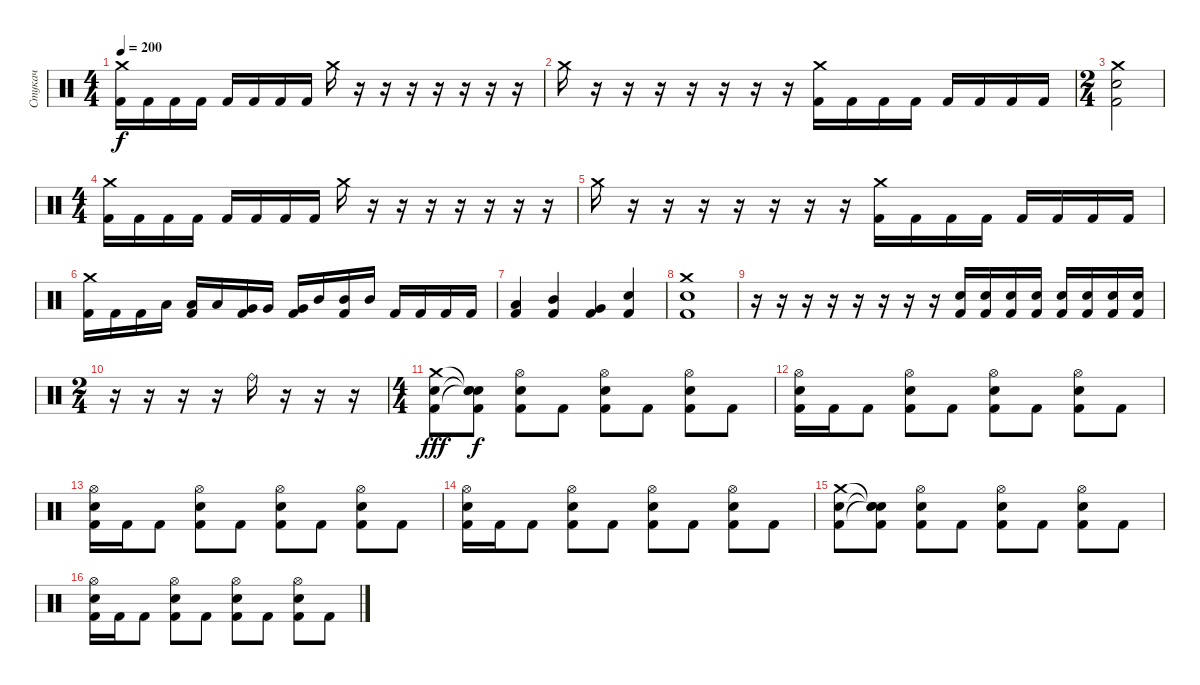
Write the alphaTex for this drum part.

\track ("Стукач" "Стукач") {instrument percussion}
\staff {score}
\articulation defaults
\ts (4 4)
\tempo 200
\clef neutral
\ks c
("Crash medium (hit)" "Kick (hit) 2").16{dy f} "Kick (hit) 2".16 "Kick (hit) 2".16 "Kick (hit) 2".16 "Kick (hit) 2".16 "Kick (hit) 2".16 "Kick (hit) 2".16 "Kick (hit) 2".16 "Crash medium (hit)".16 r.16 r.16 r.16 r.16 r.16 r.16 r.16 |
"Crash medium (hit)".16 r.16 r.16 r.16 r.16 r.16 r.16 r.16 ("Crash medium (hit)" "Kick (hit) 2").16 "Kick (hit) 2".16 "Kick (hit) 2".16 "Kick (hit) 2".16 "Kick (hit) 2".16 "Kick (hit) 2".16 "Kick (hit) 2".16 "Kick (hit) 2".16 |
\ts (2 4)
("Crash medium (hit)" "Electric Snare (hit)" "Kick (hit) 2").2 |
\ts (4 4)
("Crash medium (hit)" "Kick (hit) 2").16 "Kick (hit) 2".16 "Kick (hit) 2".16 "Kick (hit) 2".16 "Kick (hit) 2".16 "Kick (hit) 2".16 "Kick (hit) 2".16 "Kick (hit) 2".16 "Crash medium (hit)".16 r.16 r.16 r.16 r.16 r.16 r.16 r.16 |
"Crash medium (hit)".16 r.16 r.16 r.16 r.16 r.16 r.16 r.16 ("Crash medium (hit)" "Kick (hit) 2").16 "Kick (hit) 2".16 "Kick (hit) 2".16 "Kick (hit) 2".16 "Kick (hit) 2".16 "Kick (hit) 2".16 "Kick (hit) 2".16 "Kick (hit) 2".16 |
("Crash medium (hit)" "Kick (hit) 2").16 "Kick (hit) 2".16 "Kick (hit) 2".16 "Low Tom (hit)".16 ("Low Tom (hit)" "Kick (hit) 2").16 "Low Tom (hit)".16 ("Very Low Tom (hit)" "Kick (hit) 2").16 "Very Low Tom (hit)".16 ("Very Low Tom (hit)" "Kick (hit) 2").16 "Mid Tom (hit)".16 ("Mid Tom (hit)" "Kick (hit) 2").16 "Mid Tom (hit)".16 "Kick (hit) 2".16 "Kick (hit) 2".16 "Kick (hit) 2".16 "Kick (hit) 2".16 |
("Low Tom (hit)" "Kick (hit) 2").4 ("Mid Tom (hit)" "Kick (hit) 2").4 ("Very Low Tom (hit)" "Kick (hit) 2").4 ("Electric Snare (hit)" "Kick (hit) 2").4 |
("Crash medium (hit)" "Electric Snare (hit)" "Kick (hit) 2").1 |
r.16 r.16 r.16 r.16 r.16 r.16 r.16 r.16 ("Electric Snare (hit)" "Kick (hit) 2").16 ("Electric Snare (hit)" "Kick (hit) 2").16 ("Electric Snare (hit)" "Kick (hit) 2").16 ("Electric Snare (hit)" "Kick (hit) 2").16 ("Electric Snare (hit)" "Kick (hit) 2").16 ("Electric Snare (hit)" "Kick (hit) 2").16 ("Electric Snare (hit)" "Kick (hit) 2").16 ("Electric Snare (hit)" "Kick (hit) 2").16 |
\ts (2 4)
r.16 r.16 r.16 r.16 "Ride (bell)".16 r.16 r.16 r.16 |
\ts (4 4)
("Crash medium (hit)" "Electric Snare (hit)" "Kick (hit) 2").8{dy fff} ("Snare (hit)"{t} "Snare (hit)"{t} "Snare (hit)"{t} "Kick (hit) 2").8{dy f} ("Hi-Hat (open)" "Electric Snare (hit)" "Kick (hit) 2").8 "Kick (hit) 2".8 ("Hi-Hat (open)" "Electric Snare (hit)" "Kick (hit) 2").8 "Kick (hit) 2".8 ("Hi-Hat (open)" "Electric Snare (hit)" "Kick (hit) 2").8 "Kick (hit) 2".8 |
("Hi-Hat (open)" "Electric Snare (hit)" "Kick (hit) 2").16 "Kick (hit) 2".16 "Kick (hit) 2".8 ("Hi-Hat (open)" "Electric Snare (hit)" "Kick (hit) 2").8 "Kick (hit) 2".8 ("Hi-Hat (open)" "Electric Snare (hit)" "Kick (hit) 2").8 "Kick (hit) 2".8 ("Hi-Hat (open)" "Electric Snare (hit)" "Kick (hit) 2").8 "Kick (hit) 2".8 |
("Hi-Hat (open)" "Electric Snare (hit)" "Kick (hit) 2").16 "Kick (hit) 2".16 "Kick (hit) 2".8 ("Hi-Hat (open)" "Electric Snare (hit)" "Kick (hit) 2").8 "Kick (hit) 2".8 ("Hi-Hat (open)" "Electric Snare (hit)" "Kick (hit) 2").8 "Kick (hit) 2".8 ("Hi-Hat (open)" "Electric Snare (hit)" "Kick (hit) 2").8 "Kick (hit) 2".8 |
("Hi-Hat (open)" "Electric Snare (hit)" "Kick (hit) 2").16 "Kick (hit) 2".16 "Kick (hit) 2".8 ("Hi-Hat (open)" "Electric Snare (hit)" "Kick (hit) 2").8 "Kick (hit) 2".8 ("Hi-Hat (open)" "Electric Snare (hit)" "Kick (hit) 2").8 "Kick (hit) 2".8 ("Hi-Hat (open)" "Electric Snare (hit)" "Kick (hit) 2").8 "Kick (hit) 2".8 |
("Crash medium (hit)" "Electric Snare (hit)" "Kick (hit) 2").8 ("Snare (hit)"{t} "Snare (hit)"{t} "Snare (hit)"{t} "Kick (hit) 2").8 ("Hi-Hat (open)" "Electric Snare (hit)" "Kick (hit) 2").8 "Kick (hit) 2".8 ("Hi-Hat (open)" "Electric Snare (hit)" "Kick (hit) 2").8 "Kick (hit) 2".8 ("Hi-Hat (open)" "Electric Snare (hit)" "Kick (hit) 2").8 "Kick (hit) 2".8 |
("Hi-Hat (open)" "Electric Snare (hit)" "Kick (hit) 2").16 "Kick (hit) 2".16 "Kick (hit) 2".8 ("Hi-Hat (open)" "Electric Snare (hit)" "Kick (hit) 2").8 "Kick (hit) 2".8 ("Hi-Hat (open)" "Electric Snare (hit)" "Kick (hit) 2").8 "Kick (hit) 2".8 ("Hi-Hat (open)" "Electric Snare (hit)" "Kick (hit) 2").8 "Kick (hit) 2".8
